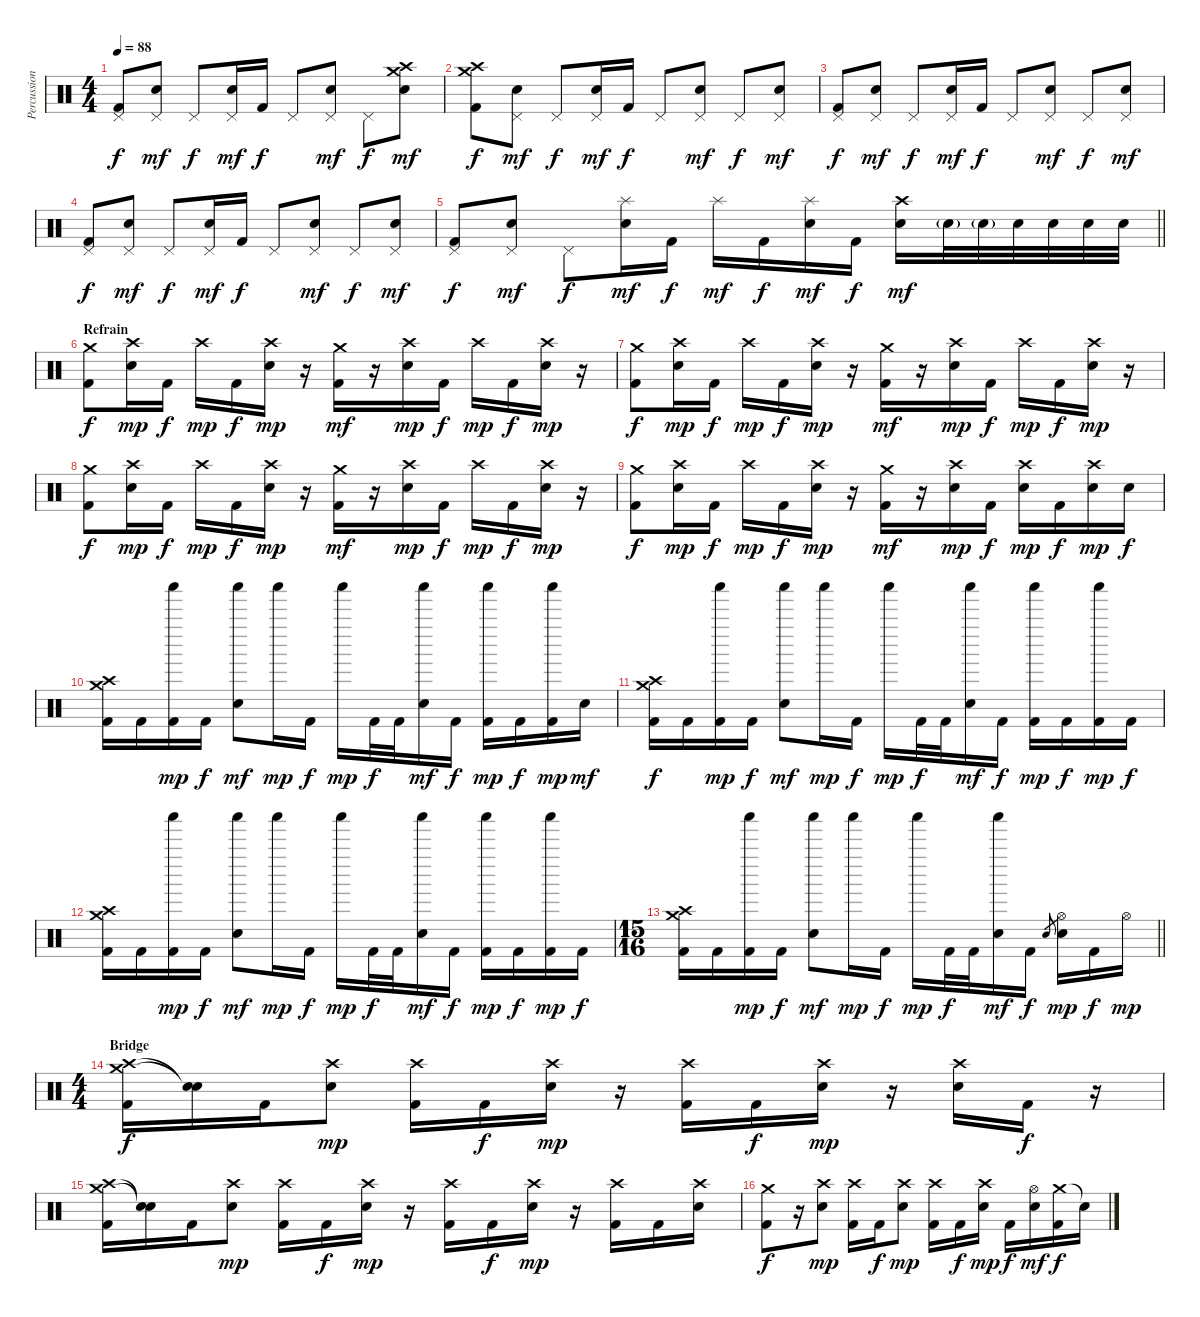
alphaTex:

\track ("Percussion" "Percussion") {instrument percussion}
\staff {score}
\articulation defaults
\ts (4 4)
\tempo 88
\clef neutral
\ks c
("Pedal Hi-Hat (hit)" "Kick (hit) 2").8{dy f} ("Pedal Hi-Hat (hit)" "Electric Snare (hit)").8{dy mf} "Pedal Hi-Hat (hit)".8{dy f} ("Pedal Hi-Hat (hit)" "Electric Snare (hit)").16{dy mf} "Kick (hit) 2".16{dy f} "Pedal Hi-Hat (hit)".8 ("Pedal Hi-Hat (hit)" "Electric Snare (hit)").8{dy mf} "Pedal Hi-Hat (hit)".8{dy f} ("Crash high (hit)" "Crash medium (hit)" "Electric Snare (hit)").8{dy mf} |
("Crash high (hit)" "Crash medium (hit)" "Kick (hit) 2").8{dy f} ("Pedal Hi-Hat (hit)" "Electric Snare (hit)").8{dy mf} "Pedal Hi-Hat (hit)".8{dy f} ("Pedal Hi-Hat (hit)" "Electric Snare (hit)").16{dy mf} "Kick (hit) 2".16{dy f} "Pedal Hi-Hat (hit)".8 ("Pedal Hi-Hat (hit)" "Electric Snare (hit)").8{dy mf} "Pedal Hi-Hat (hit)".8{dy f} ("Pedal Hi-Hat (hit)" "Electric Snare (hit)").8{dy mf} |
("Pedal Hi-Hat (hit)" "Kick (hit) 2").8{dy f} ("Pedal Hi-Hat (hit)" "Electric Snare (hit)").8{dy mf} "Pedal Hi-Hat (hit)".8{dy f} ("Pedal Hi-Hat (hit)" "Electric Snare (hit)").16{dy mf} "Kick (hit) 2".16{dy f} "Pedal Hi-Hat (hit)".8 ("Pedal Hi-Hat (hit)" "Electric Snare (hit)").8{dy mf} "Pedal Hi-Hat (hit)".8{dy f} ("Pedal Hi-Hat (hit)" "Electric Snare (hit)").8{dy mf} |
("Pedal Hi-Hat (hit)" "Kick (hit) 2").8{dy f} ("Pedal Hi-Hat (hit)" "Electric Snare (hit)").8{dy mf} "Pedal Hi-Hat (hit)".8{dy f} ("Pedal Hi-Hat (hit)" "Electric Snare (hit)").16{dy mf} "Kick (hit) 2".16{dy f} "Pedal Hi-Hat (hit)".8 ("Pedal Hi-Hat (hit)" "Electric Snare (hit)").8{dy mf} "Pedal Hi-Hat (hit)".8{dy f} ("Pedal Hi-Hat (hit)" "Electric Snare (hit)").8{dy mf} |
\barLineRight lightlight
("Pedal Hi-Hat (hit)" "Kick (hit) 2").8{dy f} ("Pedal Hi-Hat (hit)" "Electric Snare (hit)").8{dy mf} "Pedal Hi-Hat (hit)".8{dy f} ("Splash (hit)" "Electric Snare (hit)").16{dy mf} "Kick (hit) 2".16{dy f} "Splash (hit)".16{dy mf} "Kick (hit) 2".16{dy f} ("Splash (hit)" "Electric Snare (hit)").16{dy mf} "Kick (hit) 2".16{dy f} ("Crash high (hit)" "Electric Snare (hit)").16{dy mf} "Electric Snare (hit)"{g}.32 "Electric Snare (hit)"{g}.32 "Electric Snare (hit)".32 "Electric Snare (hit)".32 "Electric Snare (hit)".32 "Electric Snare (hit)".32 |
\section ("" "Refrain")
("Crash medium (hit)" "Kick (hit) 2").8{dy f} ("Crash high (hit)" "Electric Snare (hit)").16{dy mp} "Kick (hit) 2".16{dy f} "Crash high (hit)".16{dy mp} "Kick (hit) 2".16{dy f} ("Crash high (hit)" "Electric Snare (hit)").16{dy mp} r.16 ("Crash medium (hit)" "Kick (hit) 2").16{dy mf} r.16 ("Crash high (hit)" "Electric Snare (hit)").16{dy mp} "Kick (hit) 2".16{dy f} "Crash high (hit)".16{dy mp} "Kick (hit) 2".16{dy f} ("Crash high (hit)" "Electric Snare (hit)").16{dy mp} r.16 |
("Crash medium (hit)" "Kick (hit) 2").8{dy f} ("Crash high (hit)" "Electric Snare (hit)").16{dy mp} "Kick (hit) 2".16{dy f} "Crash high (hit)".16{dy mp} "Kick (hit) 2".16{dy f} ("Crash high (hit)" "Electric Snare (hit)").16{dy mp} r.16 ("Crash medium (hit)" "Kick (hit) 2").16{dy mf} r.16 ("Crash high (hit)" "Electric Snare (hit)").16{dy mp} "Kick (hit) 2".16{dy f} "Crash high (hit)".16{dy mp} "Kick (hit) 2".16{dy f} ("Crash high (hit)" "Electric Snare (hit)").16{dy mp} r.16 |
("Crash medium (hit)" "Kick (hit) 2").8{dy f} ("Crash high (hit)" "Electric Snare (hit)").16{dy mp} "Kick (hit) 2".16{dy f} "Crash high (hit)".16{dy mp} "Kick (hit) 2".16{dy f} ("Crash high (hit)" "Electric Snare (hit)").16{dy mp} r.16 ("Crash medium (hit)" "Kick (hit) 2").16{dy mf} r.16 ("Crash high (hit)" "Electric Snare (hit)").16{dy mp} "Kick (hit) 2".16{dy f} "Crash high (hit)".16{dy mp} "Kick (hit) 2".16{dy f} ("Crash high (hit)" "Electric Snare (hit)").16{dy mp} r.16 |
("Crash medium (hit)" "Kick (hit) 2").8{dy f} ("Crash high (hit)" "Electric Snare (hit)").16{dy mp} "Kick (hit) 2".16{dy f} "Crash high (hit)".16{dy mp} "Kick (hit) 2".16{dy f} ("Crash high (hit)" "Electric Snare (hit)").16{dy mp} r.16 ("Crash medium (hit)" "Kick (hit) 2").16{dy mf} r.16 ("Crash high (hit)" "Electric Snare (hit)").16{dy mp} "Kick (hit) 2".16{dy f} ("Crash high (hit)" "Electric Snare (hit)").16{dy mp} "Kick (hit) 2".16{dy f} ("Crash high (hit)" "Electric Snare (hit)").16{dy mp} "Electric Snare (hit)".16{dy f} |
("Crash high (hit)" "Crash medium (hit)" "Kick (hit) 2").16 "Kick (hit) 2".16 ("Shaker (hit)" "Kick (hit) 2").16{dy mp} "Kick (hit) 2".16{dy f} ("Shaker (hit)" "Electric Snare (hit)").8{dy mf} "Shaker (hit)".16{dy mp} "Kick (hit) 2".16{dy f} "Shaker (hit)".16{dy mp} "Kick (hit) 2".32{dy f} "Kick (hit) 2".32 ("Shaker (hit)" "Electric Snare (hit)").16{dy mf} "Kick (hit) 2".16{dy f} ("Shaker (hit)" "Kick (hit) 2").16{dy mp} "Kick (hit) 2".16{dy f} ("Shaker (hit)" "Kick (hit) 2").16{dy mp} "Electric Snare (hit)".16{dy mf} |
("Crash high (hit)" "Crash medium (hit)" "Kick (hit) 2").16{dy f} "Kick (hit) 2".16 ("Shaker (hit)" "Kick (hit) 2").16{dy mp} "Kick (hit) 2".16{dy f} ("Shaker (hit)" "Electric Snare (hit)").8{dy mf} "Shaker (hit)".16{dy mp} "Kick (hit) 2".16{dy f} "Shaker (hit)".16{dy mp} "Kick (hit) 2".32{dy f} "Kick (hit) 2".32 ("Shaker (hit)" "Electric Snare (hit)").16{dy mf} "Kick (hit) 2".16{dy f} ("Shaker (hit)" "Kick (hit) 2").16{dy mp} "Kick (hit) 2".16{dy f} ("Shaker (hit)" "Kick (hit) 2").16{dy mp} "Kick (hit) 2".16{dy f} |
("Crash high (hit)" "Crash medium (hit)" "Kick (hit) 2").16 "Kick (hit) 2".16 ("Shaker (hit)" "Kick (hit) 2").16{dy mp} "Kick (hit) 2".16{dy f} ("Shaker (hit)" "Electric Snare (hit)").8{dy mf} "Shaker (hit)".16{dy mp} "Kick (hit) 2".16{dy f} "Shaker (hit)".16{dy mp} "Kick (hit) 2".32{dy f} "Kick (hit) 2".32 ("Shaker (hit)" "Electric Snare (hit)").16{dy mf} "Kick (hit) 2".16{dy f} ("Shaker (hit)" "Kick (hit) 2").16{dy mp} "Kick (hit) 2".16{dy f} ("Shaker (hit)" "Kick (hit) 2").16{dy mp} "Kick (hit) 2".16{dy f} |
\ts (15 16)
\barLineRight lightlight
("Crash high (hit)" "Crash medium (hit)" "Kick (hit) 2").16 "Kick (hit) 2".16 ("Shaker (hit)" "Kick (hit) 2").16{dy mp} "Kick (hit) 2".16{dy f} ("Shaker (hit)" "Electric Snare (hit)").8{dy mf} "Shaker (hit)".16{dy mp} "Kick (hit) 2".16{dy f} "Shaker (hit)".16{dy mp} "Kick (hit) 2".32{dy f} "Kick (hit) 2".32 ("Shaker (hit)" "Electric Snare (hit)").16{dy mf} "Kick (hit) 2".16{dy f} "Electric Snare (hit)".8{gr} ("Hi-Hat (open)" "Electric Snare (hit)").16{dy mp} "Kick (hit) 2".16{dy f} "Hi-Hat (open)".16{dy mp} |
\ts (4 4)
\section ("" "Bridge")
("Crash high (hit)" "Crash medium (hit)" "Kick (hit) 2").16{dy f} ("Snare (hit)"{t} "Snare (hit)"{t}).16 "Kick (hit) 2".16 ("Crash high (hit)" "Electric Snare (hit)").8{dy mp} ("Crash high (hit)" "Kick (hit) 2").16 "Kick (hit) 2".16{dy f} ("Crash high (hit)" "Electric Snare (hit)").16{dy mp} r.16 ("Crash high (hit)" "Kick (hit) 2").16 "Kick (hit) 2".16{dy f} ("Crash high (hit)" "Electric Snare (hit)").16{dy mp} r.16 ("Crash high (hit)" "Electric Snare (hit)").16 "Kick (hit) 2".16{dy f} r.16 |
("Crash high (hit)" "Crash medium (hit)" "Kick (hit) 2").16 ("Snare (hit)"{t} "Snare (hit)"{t}).16 "Kick (hit) 2".16 ("Crash high (hit)" "Electric Snare (hit)").8{dy mp} ("Crash high (hit)" "Kick (hit) 2").16 "Kick (hit) 2".16{dy f} ("Crash high (hit)" "Electric Snare (hit)").16{dy mp} r.16 ("Crash high (hit)" "Kick (hit) 2").16 "Kick (hit) 2".16{dy f} ("Crash high (hit)" "Electric Snare (hit)").16{dy mp} r.16 ("Crash high (hit)" "Kick (hit) 2").16 "Kick (hit) 2".16 ("Crash high (hit)" "Electric Snare (hit)").16 |
("Crash medium (hit)" "Kick (hit) 2").8{dy f} r.16 ("Crash high (hit)" "Electric Snare (hit)").8{dy mp} ("Crash high (hit)" "Kick (hit) 2").16 "Kick (hit) 2".16{dy f} ("Crash high (hit)" "Electric Snare (hit)").8{dy mp} ("Crash high (hit)" "Kick (hit) 2").16 "Kick (hit) 2".16{dy f} ("Crash high (hit)" "Electric Snare (hit)").16{dy mp} "Kick (hit) 2".16{dy f} ("Hi-Hat (open)" "Electric Snare (hit)").16{dy mf} ("Crash medium (hit)" "Kick (hit) 2").16{dy f} "Snare (hit)"{t}.16
